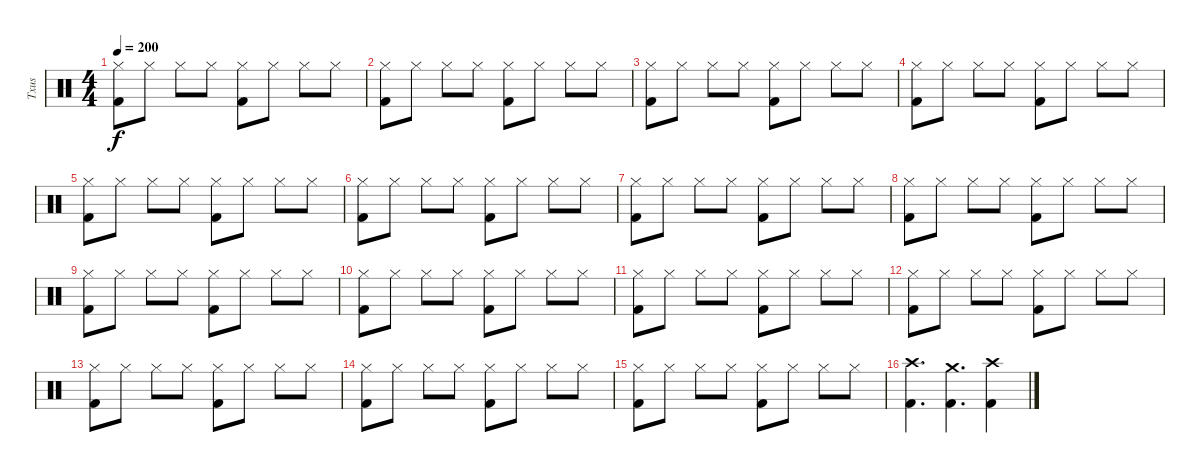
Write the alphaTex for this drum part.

\track ("Txus" "Txus") {instrument percussion}
\staff
\articulation defaults
\ts (4 4)
\tempo 200
\clef neutral
\ks c
("Kick (hit) 2" "Hi-Hat (closed)").8{dy f} "Hi-Hat (closed)".8 "Hi-Hat (closed)".8 "Hi-Hat (closed)".8 ("Kick (hit) 2" "Hi-Hat (closed)").8 "Hi-Hat (closed)".8 "Hi-Hat (closed)".8 "Hi-Hat (closed)".8 |
("Kick (hit) 2" "Hi-Hat (closed)").8 "Hi-Hat (closed)".8 "Hi-Hat (closed)".8 "Hi-Hat (closed)".8 ("Kick (hit) 2" "Hi-Hat (closed)").8 "Hi-Hat (closed)".8 "Hi-Hat (closed)".8 "Hi-Hat (closed)".8 |
("Kick (hit) 2" "Hi-Hat (closed)").8 "Hi-Hat (closed)".8 "Hi-Hat (closed)".8 "Hi-Hat (closed)".8 ("Kick (hit) 2" "Hi-Hat (closed)").8 "Hi-Hat (closed)".8 "Hi-Hat (closed)".8 "Hi-Hat (closed)".8 |
("Kick (hit) 2" "Hi-Hat (closed)").8 "Hi-Hat (closed)".8 "Hi-Hat (closed)".8 "Hi-Hat (closed)".8 ("Kick (hit) 2" "Hi-Hat (closed)").8 "Hi-Hat (closed)".8 "Hi-Hat (closed)".8 "Hi-Hat (closed)".8 |
("Kick (hit) 2" "Hi-Hat (closed)").8 "Hi-Hat (closed)".8 "Hi-Hat (closed)".8 "Hi-Hat (closed)".8 ("Kick (hit) 2" "Hi-Hat (closed)").8 "Hi-Hat (closed)".8 "Hi-Hat (closed)".8 "Hi-Hat (closed)".8 |
("Kick (hit) 2" "Hi-Hat (closed)").8 "Hi-Hat (closed)".8 "Hi-Hat (closed)".8 "Hi-Hat (closed)".8 ("Kick (hit) 2" "Hi-Hat (closed)").8 "Hi-Hat (closed)".8 "Hi-Hat (closed)".8 "Hi-Hat (closed)".8 |
("Kick (hit) 2" "Hi-Hat (closed)").8 "Hi-Hat (closed)".8 "Hi-Hat (closed)".8 "Hi-Hat (closed)".8 ("Kick (hit) 2" "Hi-Hat (closed)").8 "Hi-Hat (closed)".8 "Hi-Hat (closed)".8 "Hi-Hat (closed)".8 |
("Kick (hit) 2" "Hi-Hat (closed)").8 "Hi-Hat (closed)".8 "Hi-Hat (closed)".8 "Hi-Hat (closed)".8 ("Kick (hit) 2" "Hi-Hat (closed)").8 "Hi-Hat (closed)".8 "Hi-Hat (closed)".8 "Hi-Hat (closed)".8 |
("Kick (hit) 2" "Hi-Hat (closed)").8 "Hi-Hat (closed)".8 "Hi-Hat (closed)".8 "Hi-Hat (closed)".8 ("Kick (hit) 2" "Hi-Hat (closed)").8 "Hi-Hat (closed)".8 "Hi-Hat (closed)".8 "Hi-Hat (closed)".8 |
("Kick (hit) 2" "Hi-Hat (closed)").8 "Hi-Hat (closed)".8 "Hi-Hat (closed)".8 "Hi-Hat (closed)".8 ("Kick (hit) 2" "Hi-Hat (closed)").8 "Hi-Hat (closed)".8 "Hi-Hat (closed)".8 "Hi-Hat (closed)".8 |
("Kick (hit) 2" "Hi-Hat (closed)").8 "Hi-Hat (closed)".8 "Hi-Hat (closed)".8 "Hi-Hat (closed)".8 ("Kick (hit) 2" "Hi-Hat (closed)").8 "Hi-Hat (closed)".8 "Hi-Hat (closed)".8 "Hi-Hat (closed)".8 |
("Kick (hit) 2" "Hi-Hat (closed)").8 "Hi-Hat (closed)".8 "Hi-Hat (closed)".8 "Hi-Hat (closed)".8 ("Kick (hit) 2" "Hi-Hat (closed)").8 "Hi-Hat (closed)".8 "Hi-Hat (closed)".8 "Hi-Hat (closed)".8 |
("Kick (hit) 2" "Hi-Hat (closed)").8 "Hi-Hat (closed)".8 "Hi-Hat (closed)".8 "Hi-Hat (closed)".8 ("Kick (hit) 2" "Hi-Hat (closed)").8 "Hi-Hat (closed)".8 "Hi-Hat (closed)".8 "Hi-Hat (closed)".8 |
("Kick (hit) 2" "Hi-Hat (closed)").8 "Hi-Hat (closed)".8 "Hi-Hat (closed)".8 "Hi-Hat (closed)".8 ("Kick (hit) 2" "Hi-Hat (closed)").8 "Hi-Hat (closed)".8 "Hi-Hat (closed)".8 "Hi-Hat (closed)".8 |
("Kick (hit) 2" "Hi-Hat (closed)").8 "Hi-Hat (closed)".8 "Hi-Hat (closed)".8 "Hi-Hat (closed)".8 ("Kick (hit) 2" "Hi-Hat (closed)").8 "Hi-Hat (closed)".8 "Hi-Hat (closed)".8 "Hi-Hat (closed)".8 |
("Kick (hit) 2" "Crash high (hit)").4{d} ("Kick (hit) 2" "Crash medium (hit)").4{d} ("Kick (hit) 2" "Crash high (hit)").4
